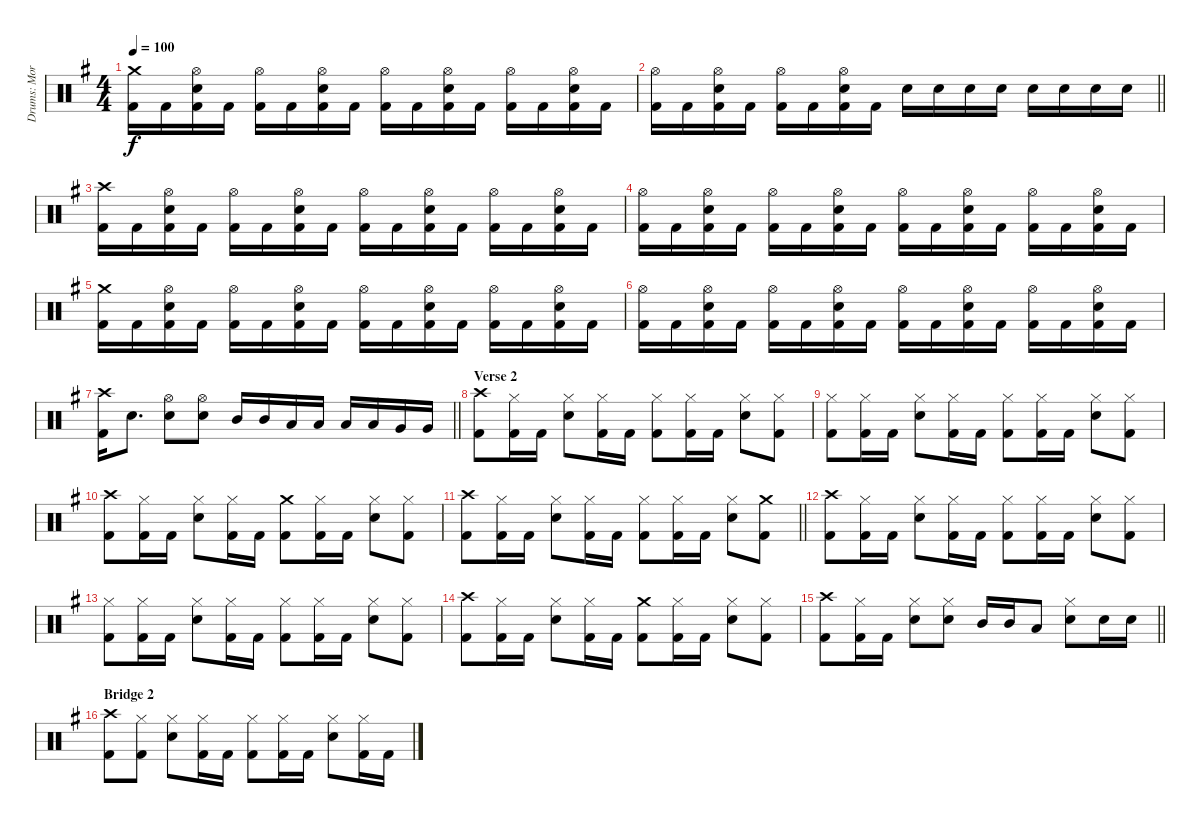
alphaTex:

\track ("Drums: Morten Færøvig" "Drums: Mor") {instrument percussion}
\staff {score}
\articulation defaults
\ts (4 4)
\tempo 100
\clef neutral
\ks eminor
("Crash medium (hit)" "Kick (hit) 2").16{dy f} "Kick (hit) 2".16 ("Hi-Hat (open)" "Electric Snare (hit)" "Kick (hit) 2").16 "Kick (hit) 2".16 ("Hi-Hat (open)" "Kick (hit) 2").16 "Kick (hit) 2".16 ("Hi-Hat (open)" "Electric Snare (hit)" "Kick (hit) 2").16 "Kick (hit) 2".16 ("Hi-Hat (open)" "Kick (hit) 2").16 "Kick (hit) 2".16 ("Hi-Hat (open)" "Electric Snare (hit)" "Kick (hit) 2").16 "Kick (hit) 2".16 ("Hi-Hat (open)" "Kick (hit) 2").16 "Kick (hit) 2".16 ("Hi-Hat (open)" "Electric Snare (hit)" "Kick (hit) 2").16 "Kick (hit) 2".16 |
\barLineRight lightlight
("Hi-Hat (open)" "Kick (hit) 2").16 "Kick (hit) 2".16 ("Hi-Hat (open)" "Electric Snare (hit)" "Kick (hit) 2").16 "Kick (hit) 2".16 ("Hi-Hat (open)" "Kick (hit) 2").16 "Kick (hit) 2".16 ("Hi-Hat (open)" "Electric Snare (hit)" "Kick (hit) 2").16 "Kick (hit) 2".16 "Electric Snare (hit)".16 "Electric Snare (hit)".16 "Electric Snare (hit)".16 "Electric Snare (hit)".16 "Electric Snare (hit)".16 "Electric Snare (hit)".16 "Electric Snare (hit)".16 "Electric Snare (hit)".16 |
("Crash high (hit)" "Kick (hit) 2").16 "Kick (hit) 2".16 ("Hi-Hat (open)" "Electric Snare (hit)" "Kick (hit) 2").16 "Kick (hit) 2".16 ("Hi-Hat (open)" "Kick (hit) 2").16 "Kick (hit) 2".16 ("Hi-Hat (open)" "Electric Snare (hit)" "Kick (hit) 2").16 "Kick (hit) 2".16 ("Hi-Hat (open)" "Kick (hit) 2").16 "Kick (hit) 2".16 ("Hi-Hat (open)" "Electric Snare (hit)" "Kick (hit) 2").16 "Kick (hit) 2".16 ("Hi-Hat (open)" "Kick (hit) 2").16 "Kick (hit) 2".16 ("Hi-Hat (open)" "Electric Snare (hit)" "Kick (hit) 2").16 "Kick (hit) 2".16 |
("Hi-Hat (open)" "Kick (hit) 2").16 "Kick (hit) 2".16 ("Hi-Hat (open)" "Electric Snare (hit)" "Kick (hit) 2").16 "Kick (hit) 2".16 ("Hi-Hat (open)" "Kick (hit) 2").16 "Kick (hit) 2".16 ("Hi-Hat (open)" "Electric Snare (hit)" "Kick (hit) 2").16 "Kick (hit) 2".16 ("Hi-Hat (open)" "Kick (hit) 2").16 "Kick (hit) 2".16 ("Hi-Hat (open)" "Electric Snare (hit)" "Kick (hit) 2").16 "Kick (hit) 2".16 ("Hi-Hat (open)" "Kick (hit) 2").16 "Kick (hit) 2".16 ("Hi-Hat (open)" "Electric Snare (hit)" "Kick (hit) 2").16 "Kick (hit) 2".16 |
("Crash medium (hit)" "Kick (hit) 2").16 "Kick (hit) 2".16 ("Hi-Hat (open)" "Electric Snare (hit)" "Kick (hit) 2").16 "Kick (hit) 2".16 ("Hi-Hat (open)" "Kick (hit) 2").16 "Kick (hit) 2".16 ("Hi-Hat (open)" "Electric Snare (hit)" "Kick (hit) 2").16 "Kick (hit) 2".16 ("Hi-Hat (open)" "Kick (hit) 2").16 "Kick (hit) 2".16 ("Hi-Hat (open)" "Electric Snare (hit)" "Kick (hit) 2").16 "Kick (hit) 2".16 ("Hi-Hat (open)" "Kick (hit) 2").16 "Kick (hit) 2".16 ("Hi-Hat (open)" "Electric Snare (hit)" "Kick (hit) 2").16 "Kick (hit) 2".16 |
("Hi-Hat (open)" "Kick (hit) 2").16 "Kick (hit) 2".16 ("Hi-Hat (open)" "Electric Snare (hit)" "Kick (hit) 2").16 "Kick (hit) 2".16 ("Hi-Hat (open)" "Kick (hit) 2").16 "Kick (hit) 2".16 ("Hi-Hat (open)" "Electric Snare (hit)" "Kick (hit) 2").16 "Kick (hit) 2".16 ("Hi-Hat (open)" "Kick (hit) 2").16 "Kick (hit) 2".16 ("Hi-Hat (open)" "Electric Snare (hit)" "Kick (hit) 2").16 "Kick (hit) 2".16 ("Hi-Hat (open)" "Kick (hit) 2").16 "Kick (hit) 2".16 ("Hi-Hat (open)" "Electric Snare (hit)" "Kick (hit) 2").16 "Kick (hit) 2".16 |
\barLineRight lightlight
("Crash high (hit)" "Kick (hit) 2").16 "Electric Snare (hit)".8{d} ("Hi-Hat (open)" "Electric Snare (hit)").8 ("Hi-Hat (open)" "Electric Snare (hit)").8 "Mid Tom (hit)".16 "Mid Tom (hit)".16 "Low Tom (hit)".16 "Low Tom (hit)".16 "Low Tom (hit)".16 "Low Tom (hit)".16 "Very Low Tom (hit)".16 "Very Low Tom (hit)".16 |
\section ("" "Verse 2")
("Crash high (hit)" "Kick (hit) 2").8 ("Hi-Hat (closed)" "Kick (hit) 2").16 "Kick (hit) 2".16 ("Hi-Hat (closed)" "Electric Snare (hit)").8 ("Hi-Hat (closed)" "Kick (hit) 2").16 "Kick (hit) 2".16 ("Hi-Hat (closed)" "Kick (hit) 2").8 ("Hi-Hat (closed)" "Kick (hit) 2").16 "Kick (hit) 2".16 ("Hi-Hat (closed)" "Electric Snare (hit)").8 ("Hi-Hat (closed)" "Kick (hit) 2").8 |
("Hi-Hat (closed)" "Kick (hit) 2").8 ("Hi-Hat (closed)" "Kick (hit) 2").16 "Kick (hit) 2".16 ("Hi-Hat (closed)" "Electric Snare (hit)").8 ("Hi-Hat (closed)" "Kick (hit) 2").16 "Kick (hit) 2".16 ("Hi-Hat (closed)" "Kick (hit) 2").8 ("Hi-Hat (closed)" "Kick (hit) 2").16 "Kick (hit) 2".16 ("Hi-Hat (closed)" "Electric Snare (hit)").8 ("Hi-Hat (closed)" "Kick (hit) 2").8 |
("Crash high (hit)" "Kick (hit) 2").8 ("Hi-Hat (closed)" "Kick (hit) 2").16 "Kick (hit) 2".16 ("Hi-Hat (closed)" "Electric Snare (hit)").8 ("Hi-Hat (closed)" "Kick (hit) 2").16 "Kick (hit) 2".16 ("Crash medium (hit)" "Kick (hit) 2").8 ("Hi-Hat (closed)" "Kick (hit) 2").16 "Kick (hit) 2".16 ("Hi-Hat (closed)" "Electric Snare (hit)").8 ("Hi-Hat (closed)" "Kick (hit) 2").8 |
\barLineRight lightlight
("Crash high (hit)" "Kick (hit) 2").8 ("Hi-Hat (closed)" "Kick (hit) 2").16 "Kick (hit) 2".16 ("Hi-Hat (closed)" "Electric Snare (hit)").8 ("Hi-Hat (closed)" "Kick (hit) 2").16 "Kick (hit) 2".16 ("Hi-Hat (closed)" "Kick (hit) 2").8 ("Hi-Hat (closed)" "Kick (hit) 2").16 "Kick (hit) 2".16 ("Hi-Hat (closed)" "Electric Snare (hit)").8 ("Crash medium (hit)" "Kick (hit) 2").8 |
("Crash high (hit)" "Kick (hit) 2").8 ("Hi-Hat (closed)" "Kick (hit) 2").16 "Kick (hit) 2".16 ("Hi-Hat (closed)" "Electric Snare (hit)").8 ("Hi-Hat (closed)" "Kick (hit) 2").16 "Kick (hit) 2".16 ("Hi-Hat (closed)" "Kick (hit) 2").8 ("Hi-Hat (closed)" "Kick (hit) 2").16 "Kick (hit) 2".16 ("Hi-Hat (closed)" "Electric Snare (hit)").8 ("Hi-Hat (closed)" "Kick (hit) 2").8 |
("Hi-Hat (closed)" "Kick (hit) 2").8 ("Hi-Hat (closed)" "Kick (hit) 2").16 "Kick (hit) 2".16 ("Hi-Hat (closed)" "Electric Snare (hit)").8 ("Hi-Hat (closed)" "Kick (hit) 2").16 "Kick (hit) 2".16 ("Hi-Hat (closed)" "Kick (hit) 2").8 ("Hi-Hat (closed)" "Kick (hit) 2").16 "Kick (hit) 2".16 ("Hi-Hat (closed)" "Electric Snare (hit)").8 ("Hi-Hat (closed)" "Kick (hit) 2").8 |
("Crash high (hit)" "Kick (hit) 2").8 ("Hi-Hat (closed)" "Kick (hit) 2").16 "Kick (hit) 2".16 ("Hi-Hat (closed)" "Electric Snare (hit)").8 ("Hi-Hat (closed)" "Kick (hit) 2").16 "Kick (hit) 2".16 ("Crash medium (hit)" "Kick (hit) 2").8 ("Hi-Hat (closed)" "Kick (hit) 2").16 "Kick (hit) 2".16 ("Hi-Hat (closed)" "Electric Snare (hit)").8 ("Hi-Hat (closed)" "Kick (hit) 2").8 |
\barLineRight lightlight
("Crash high (hit)" "Kick (hit) 2").8 ("Hi-Hat (closed)" "Kick (hit) 2").16 "Kick (hit) 2".16 ("Hi-Hat (closed)" "Electric Snare (hit)").8 ("Hi-Hat (closed)" "Electric Snare (hit)").8 "Mid Tom (hit)".16 "Mid Tom (hit)".16 "Low Tom (hit)".8 ("Hi-Hat (closed)" "Electric Snare (hit)").8 "Electric Snare (hit)".16 "Electric Snare (hit)".16 |
\section ("" "Bridge 2")
("Crash high (hit)" "Kick (hit) 2").8 ("Hi-Hat (closed)" "Kick (hit) 2").8 ("Hi-Hat (closed)" "Electric Snare (hit)").8 ("Hi-Hat (closed)" "Kick (hit) 2").16 "Kick (hit) 2".16 ("Hi-Hat (closed)" "Kick (hit) 2").8 ("Hi-Hat (closed)" "Kick (hit) 2").16 "Kick (hit) 2".16 ("Hi-Hat (closed)" "Electric Snare (hit)").8 ("Hi-Hat (closed)" "Kick (hit) 2").16 "Kick (hit) 2".16
